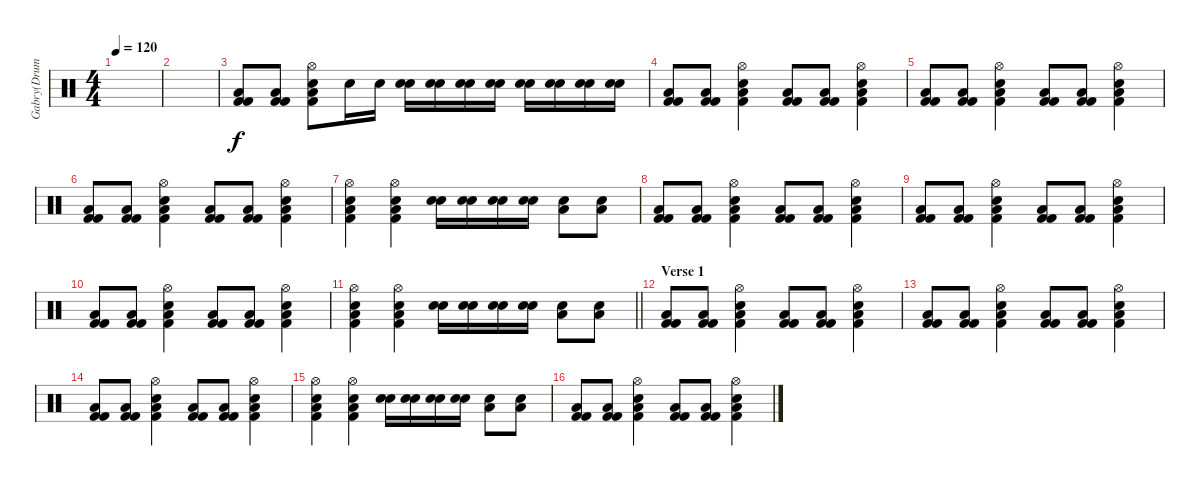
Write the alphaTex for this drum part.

\track ("Gabry(Drums)" "Gabry(Drum") {instrument percussion}
\staff {score}
\articulation defaults
\ts (4 4)
\tempo 120
\clef neutral
\ks c
|
|
("Kick (hit) 2" "Kick (hit) 2" "Low Floor Tom (hit)").8 ("Kick (hit) 2" "Kick (hit) 2" "Low Floor Tom (hit)").8 ("Kick (hit) 2" "Electric Snare (hit)" "Low Floor Tom (hit)" "Hi-Hat (open)").8 "Electric Snare (hit)".16 "Electric Snare (hit)".16 ("Electric Snare (hit)" "Electric Snare (hit)").16 ("Electric Snare (hit)" "Electric Snare (hit)").16 ("Electric Snare (hit)" "Electric Snare (hit)").16 ("Electric Snare (hit)" "Electric Snare (hit)").16 ("Electric Snare (hit)" "Electric Snare (hit)").16 ("Electric Snare (hit)" "Electric Snare (hit)").16 ("Electric Snare (hit)" "Electric Snare (hit)").16 ("Electric Snare (hit)" "Electric Snare (hit)").16 |
("Kick (hit) 2" "Kick (hit) 2" "Low Floor Tom (hit)").8 ("Kick (hit) 2" "Kick (hit) 2" "Low Floor Tom (hit)").8 ("Kick (hit) 2" "Electric Snare (hit)" "Low Floor Tom (hit)" "Hi-Hat (open)").4 ("Kick (hit) 2" "Kick (hit) 2" "Low Floor Tom (hit)").8 ("Kick (hit) 2" "Kick (hit) 2" "Low Floor Tom (hit)").8 ("Kick (hit) 2" "Electric Snare (hit)" "Low Floor Tom (hit)" "Hi-Hat (open)").4 |
("Kick (hit) 2" "Kick (hit) 2" "Low Floor Tom (hit)").8 ("Kick (hit) 2" "Kick (hit) 2" "Low Floor Tom (hit)").8 ("Kick (hit) 2" "Electric Snare (hit)" "Low Floor Tom (hit)" "Hi-Hat (open)").4 ("Kick (hit) 2" "Kick (hit) 2" "Low Floor Tom (hit)").8 ("Kick (hit) 2" "Kick (hit) 2" "Low Floor Tom (hit)").8 ("Kick (hit) 2" "Electric Snare (hit)" "Low Floor Tom (hit)" "Hi-Hat (open)").4 |
("Kick (hit) 2" "Kick (hit) 2" "Low Floor Tom (hit)").8 ("Kick (hit) 2" "Kick (hit) 2" "Low Floor Tom (hit)").8 ("Kick (hit) 2" "Electric Snare (hit)" "Low Floor Tom (hit)" "Hi-Hat (open)").4 ("Kick (hit) 2" "Kick (hit) 2" "Low Floor Tom (hit)").8 ("Kick (hit) 2" "Kick (hit) 2" "Low Floor Tom (hit)").8 ("Kick (hit) 2" "Electric Snare (hit)" "Low Floor Tom (hit)" "Hi-Hat (open)").4 |
("Kick (hit) 2" "Electric Snare (hit)" "Low Floor Tom (hit)" "Hi-Hat (open)").4 ("Kick (hit) 2" "Electric Snare (hit)" "Low Floor Tom (hit)" "Hi-Hat (open)").4 ("Electric Snare (hit)" "Electric Snare (hit)").16 ("Electric Snare (hit)" "Electric Snare (hit)").16 ("Electric Snare (hit)" "Electric Snare (hit)").16 ("Electric Snare (hit)" "Electric Snare (hit)").16 ("Electric Snare (hit)" "Low Floor Tom (hit)").8 ("Electric Snare (hit)" "Low Floor Tom (hit)").8 |
("Kick (hit) 2" "Kick (hit) 2" "Low Floor Tom (hit)").8 ("Kick (hit) 2" "Kick (hit) 2" "Low Floor Tom (hit)").8 ("Kick (hit) 2" "Electric Snare (hit)" "Low Floor Tom (hit)" "Hi-Hat (open)").4 ("Kick (hit) 2" "Kick (hit) 2" "Low Floor Tom (hit)").8 ("Kick (hit) 2" "Kick (hit) 2" "Low Floor Tom (hit)").8 ("Kick (hit) 2" "Electric Snare (hit)" "Low Floor Tom (hit)" "Hi-Hat (open)").4 |
("Kick (hit) 2" "Kick (hit) 2" "Low Floor Tom (hit)").8 ("Kick (hit) 2" "Kick (hit) 2" "Low Floor Tom (hit)").8 ("Kick (hit) 2" "Electric Snare (hit)" "Low Floor Tom (hit)" "Hi-Hat (open)").4 ("Kick (hit) 2" "Kick (hit) 2" "Low Floor Tom (hit)").8 ("Kick (hit) 2" "Kick (hit) 2" "Low Floor Tom (hit)").8 ("Kick (hit) 2" "Electric Snare (hit)" "Low Floor Tom (hit)" "Hi-Hat (open)").4 |
("Kick (hit) 2" "Kick (hit) 2" "Low Floor Tom (hit)").8 ("Kick (hit) 2" "Kick (hit) 2" "Low Floor Tom (hit)").8 ("Kick (hit) 2" "Electric Snare (hit)" "Low Floor Tom (hit)" "Hi-Hat (open)").4 ("Kick (hit) 2" "Kick (hit) 2" "Low Floor Tom (hit)").8 ("Kick (hit) 2" "Kick (hit) 2" "Low Floor Tom (hit)").8 ("Kick (hit) 2" "Electric Snare (hit)" "Low Floor Tom (hit)" "Hi-Hat (open)").4 |
\barLineRight lightlight
("Kick (hit) 2" "Electric Snare (hit)" "Low Floor Tom (hit)" "Hi-Hat (open)").4 ("Kick (hit) 2" "Electric Snare (hit)" "Low Floor Tom (hit)" "Hi-Hat (open)").4 ("Electric Snare (hit)" "Electric Snare (hit)").16 ("Electric Snare (hit)" "Electric Snare (hit)").16 ("Electric Snare (hit)" "Electric Snare (hit)").16 ("Electric Snare (hit)" "Electric Snare (hit)").16 ("Electric Snare (hit)" "Low Floor Tom (hit)").8 ("Electric Snare (hit)" "Low Floor Tom (hit)").8 |
\section ("" "Verse 1")
("Kick (hit) 2" "Kick (hit) 2" "Low Floor Tom (hit)").8 ("Kick (hit) 2" "Kick (hit) 2" "Low Floor Tom (hit)").8 ("Kick (hit) 2" "Electric Snare (hit)" "Low Floor Tom (hit)" "Hi-Hat (open)").4 ("Kick (hit) 2" "Kick (hit) 2" "Low Floor Tom (hit)").8 ("Kick (hit) 2" "Kick (hit) 2" "Low Floor Tom (hit)").8 ("Kick (hit) 2" "Electric Snare (hit)" "Low Floor Tom (hit)" "Hi-Hat (open)").4 |
("Kick (hit) 2" "Kick (hit) 2" "Low Floor Tom (hit)").8 ("Kick (hit) 2" "Kick (hit) 2" "Low Floor Tom (hit)").8 ("Kick (hit) 2" "Electric Snare (hit)" "Low Floor Tom (hit)" "Hi-Hat (open)").4 ("Kick (hit) 2" "Kick (hit) 2" "Low Floor Tom (hit)").8 ("Kick (hit) 2" "Kick (hit) 2" "Low Floor Tom (hit)").8 ("Kick (hit) 2" "Electric Snare (hit)" "Low Floor Tom (hit)" "Hi-Hat (open)").4 |
("Kick (hit) 2" "Kick (hit) 2" "Low Floor Tom (hit)").8 ("Kick (hit) 2" "Kick (hit) 2" "Low Floor Tom (hit)").8 ("Kick (hit) 2" "Electric Snare (hit)" "Low Floor Tom (hit)" "Hi-Hat (open)").4 ("Kick (hit) 2" "Kick (hit) 2" "Low Floor Tom (hit)").8 ("Kick (hit) 2" "Kick (hit) 2" "Low Floor Tom (hit)").8 ("Kick (hit) 2" "Electric Snare (hit)" "Low Floor Tom (hit)" "Hi-Hat (open)").4 |
("Kick (hit) 2" "Electric Snare (hit)" "Low Floor Tom (hit)" "Hi-Hat (open)").4 ("Kick (hit) 2" "Electric Snare (hit)" "Low Floor Tom (hit)" "Hi-Hat (open)").4 ("Electric Snare (hit)" "Electric Snare (hit)").16 ("Electric Snare (hit)" "Electric Snare (hit)").16 ("Electric Snare (hit)" "Electric Snare (hit)").16 ("Electric Snare (hit)" "Electric Snare (hit)").16 ("Electric Snare (hit)" "Low Floor Tom (hit)").8 ("Electric Snare (hit)" "Low Floor Tom (hit)").8 |
("Kick (hit) 2" "Kick (hit) 2" "Low Floor Tom (hit)").8 ("Kick (hit) 2" "Kick (hit) 2" "Low Floor Tom (hit)").8 ("Kick (hit) 2" "Electric Snare (hit)" "Low Floor Tom (hit)" "Hi-Hat (open)").4 ("Kick (hit) 2" "Kick (hit) 2" "Low Floor Tom (hit)").8 ("Kick (hit) 2" "Kick (hit) 2" "Low Floor Tom (hit)").8 ("Kick (hit) 2" "Electric Snare (hit)" "Low Floor Tom (hit)" "Hi-Hat (open)").4
